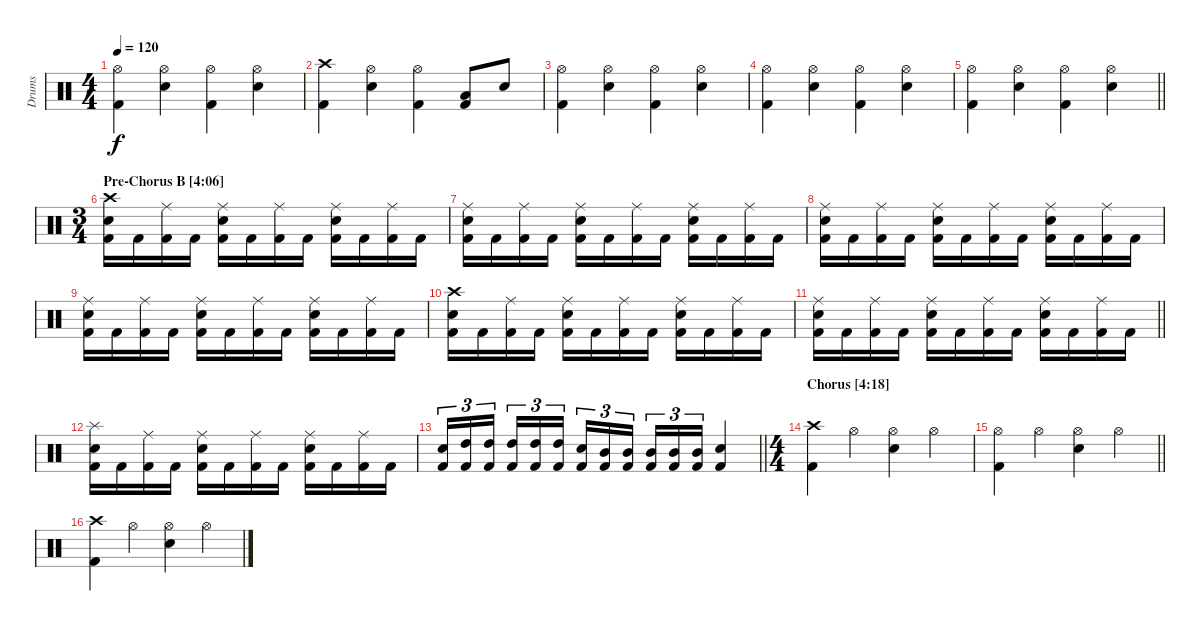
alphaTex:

\track ("Drums" "Drums") {instrument percussion}
\staff {score}
\articulation defaults
\ts (4 4)
\tempo 120
\clef neutral
\ks c
("Hi-Hat (open)" "Kick (hit) 2").4{dy f} ("Hi-Hat (open)" "Snare (hit) 2").4 ("Hi-Hat (open)" "Kick (hit) 2").4 ("Hi-Hat (open)" "Snare (hit) 2").4 |
("Crash high (hit)" "Kick (hit) 2").4 ("Hi-Hat (open)" "Snare (hit) 2").4 ("Hi-Hat (open)" "Kick (hit) 2").4 ("Low Tom (hit)" "Kick (hit) 2").8 "Snare (hit) 2".8 |
("Hi-Hat (open)" "Kick (hit) 2").4 ("Hi-Hat (open)" "Snare (hit) 2").4 ("Hi-Hat (open)" "Kick (hit) 2").4 ("Hi-Hat (open)" "Snare (hit) 2").4 |
("Hi-Hat (open)" "Kick (hit) 2").4 ("Hi-Hat (open)" "Snare (hit) 2").4 ("Hi-Hat (open)" "Kick (hit) 2").4 ("Hi-Hat (open)" "Snare (hit) 2").4 |
\barLineRight lightlight
("Hi-Hat (open)" "Kick (hit) 2").4 ("Hi-Hat (open)" "Snare (hit) 2").4 ("Hi-Hat (open)" "Kick (hit) 2").4 ("Hi-Hat (open)" "Snare (hit) 2").4 |
\ts (3 4)
\section ("" "Pre-Chorus B [4:06]")
("Crash high (hit)" "Snare (hit) 2" "Kick (hit) 2").16 "Kick (hit) 2".16 ("Ride (middle)" "Kick (hit) 2").16 "Kick (hit) 2".16 ("Ride (middle)" "Snare (hit) 2" "Kick (hit) 2").16 "Kick (hit) 2".16 ("Ride (middle)" "Kick (hit) 2").16 "Kick (hit) 2".16 ("Ride (middle)" "Snare (hit) 2" "Kick (hit) 2").16 "Kick (hit) 2".16 ("Ride (middle)" "Kick (hit) 2").16 "Kick (hit) 2".16 |
("Ride (middle)" "Snare (hit) 2" "Kick (hit) 2").16 "Kick (hit) 2".16 ("Ride (middle)" "Kick (hit) 2").16 "Kick (hit) 2".16 ("Ride (middle)" "Snare (hit) 2" "Kick (hit) 2").16 "Kick (hit) 2".16 ("Ride (middle)" "Kick (hit) 2").16 "Kick (hit) 2".16 ("Ride (middle)" "Snare (hit) 2" "Kick (hit) 2").16 "Kick (hit) 2".16 ("Ride (middle)" "Kick (hit) 2").16 "Kick (hit) 2".16 |
("Ride (middle)" "Snare (hit) 2" "Kick (hit) 2").16 "Kick (hit) 2".16 ("Ride (middle)" "Kick (hit) 2").16 "Kick (hit) 2".16 ("Ride (middle)" "Snare (hit) 2" "Kick (hit) 2").16 "Kick (hit) 2".16 ("Ride (middle)" "Kick (hit) 2").16 "Kick (hit) 2".16 ("Ride (middle)" "Snare (hit) 2" "Kick (hit) 2").16 "Kick (hit) 2".16 ("Ride (middle)" "Kick (hit) 2").16 "Kick (hit) 2".16 |
("Ride (middle)" "Snare (hit) 2" "Kick (hit) 2").16 "Kick (hit) 2".16 ("Ride (middle)" "Kick (hit) 2").16 "Kick (hit) 2".16 ("Ride (middle)" "Snare (hit) 2" "Kick (hit) 2").16 "Kick (hit) 2".16 ("Ride (middle)" "Kick (hit) 2").16 "Kick (hit) 2".16 ("Ride (middle)" "Snare (hit) 2" "Kick (hit) 2").16 "Kick (hit) 2".16 ("Ride (middle)" "Kick (hit) 2").16 "Kick (hit) 2".16 |
("Crash high (hit)" "Snare (hit) 2" "Kick (hit) 2").16 "Kick (hit) 2".16 ("Ride (middle)" "Kick (hit) 2").16 "Kick (hit) 2".16 ("Ride (middle)" "Snare (hit) 2" "Kick (hit) 2").16 "Kick (hit) 2".16 ("Ride (middle)" "Kick (hit) 2").16 "Kick (hit) 2".16 ("Ride (middle)" "Snare (hit) 2" "Kick (hit) 2").16 "Kick (hit) 2".16 ("Ride (middle)" "Kick (hit) 2").16 "Kick (hit) 2".16 |
\barLineRight lightlight
("Ride (middle)" "Snare (hit) 2" "Kick (hit) 2").16 "Kick (hit) 2".16 ("Ride (middle)" "Kick (hit) 2").16 "Kick (hit) 2".16 ("Ride (middle)" "Snare (hit) 2" "Kick (hit) 2").16 "Kick (hit) 2".16 ("Ride (middle)" "Kick (hit) 2").16 "Kick (hit) 2".16 ("Ride (middle)" "Snare (hit) 2" "Kick (hit) 2").16 "Kick (hit) 2".16 ("Ride (middle)" "Kick (hit) 2").16 "Kick (hit) 2".16 |
("Splash (hit)" "Snare (hit) 2" "Kick (hit) 2").16 "Kick (hit) 2".16 ("Ride (middle)" "Kick (hit) 2").16 "Kick (hit) 2".16 ("Ride (middle)" "Snare (hit) 2" "Kick (hit) 2").16 "Kick (hit) 2".16 ("Ride (middle)" "Kick (hit) 2").16 "Kick (hit) 2".16 ("Ride (middle)" "Snare (hit) 2" "Kick (hit) 2").16 "Kick (hit) 2".16 ("Ride (middle)" "Kick (hit) 2").16 "Kick (hit) 2".16 |
\barLineRight lightlight
("Snare (hit) 2" "Kick (hit) 2").16{tu (3 2)} ("High Tom (hit)" "Kick (hit) 2").16{tu (3 2)} ("High Tom (hit)" "Kick (hit) 2").16{tu (3 2) beam splitsecondary} ("High Tom (hit)" "Kick (hit) 2").16{tu (3 2)} ("High Tom (hit)" "Kick (hit) 2").16{tu (3 2)} ("High Tom (hit)" "Kick (hit) 2").16{tu (3 2)} ("Snare (hit) 2" "Kick (hit) 2").16{tu (3 2)} ("Mid Tom (hit)" "Kick (hit) 2").16{tu (3 2)} ("Mid Tom (hit)" "Kick (hit) 2").16{tu (3 2) beam splitsecondary} ("Mid Tom (hit)" "Kick (hit) 2").16{tu (3 2)} ("Mid Tom (hit)" "Kick (hit) 2").16{tu (3 2)} ("Mid Tom (hit)" "Kick (hit) 2").16{tu (3 2)} ("Snare (hit) 2" "Kick (hit) 2").4 |
\ts (4 4)
\section ("" "Chorus [4:18]")
("Crash high (hit)" "Kick (hit) 2").4 "Hi-Hat (open)".4 ("Hi-Hat (open)" "Snare (hit) 2").4 "Hi-Hat (open)".4 |
\barLineRight lightlight
("Hi-Hat (open)" "Kick (hit) 2").4 "Hi-Hat (open)".4 ("Hi-Hat (open)" "Snare (hit) 2").4 "Hi-Hat (open)".4 |
("Crash high (hit)" "Kick (hit) 2").4 "Hi-Hat (open)".4 ("Hi-Hat (open)" "Snare (hit) 2").4 "Hi-Hat (open)".4
